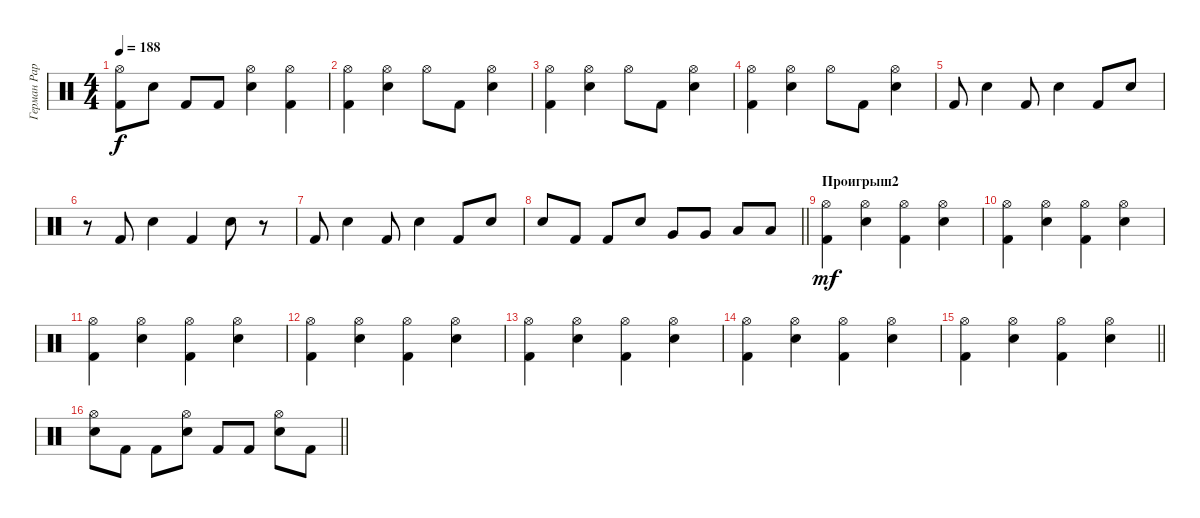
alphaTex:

\track ("Герман Раребелл, ударные" "Герман Рар") {instrument percussion}
\staff {score}
\articulation defaults
\ts (4 4)
\tempo 188
\clef neutral
\ks c
("Kick (hit) 2" "Hi-Hat (open)").8{dy f} "Snare (hit) 2".8 "Kick (hit) 2".8 "Kick (hit) 2".8 ("Snare (hit) 2" "Hi-Hat (open)").4 ("Kick (hit) 2" "Hi-Hat (open)").4 |
("Kick (hit) 2" "Hi-Hat (open)").4 ("Snare (hit) 2" "Hi-Hat (open)").4 "Hi-Hat (open)".8 "Kick (hit) 2".8 ("Snare (hit) 2" "Hi-Hat (open)").4 |
("Kick (hit) 2" "Hi-Hat (open)").4 ("Snare (hit) 2" "Hi-Hat (open)").4 "Hi-Hat (open)".8 "Kick (hit) 2".8 ("Snare (hit) 2" "Hi-Hat (open)").4 |
("Kick (hit) 2" "Hi-Hat (open)").4 ("Snare (hit) 2" "Hi-Hat (open)").4 "Hi-Hat (open)".8 "Kick (hit) 2".8 ("Snare (hit) 2" "Hi-Hat (open)").4 |
"Kick (hit) 2".8 "Snare (hit) 2".4 "Kick (hit) 2".8 "Snare (hit) 2".4 "Kick (hit) 2".8 "Snare (hit) 2".8 |
r.8 "Kick (hit) 2".8 "Snare (hit) 2".4 "Kick (hit) 2".4 "Snare (hit) 2".8 r.8 |
"Kick (hit) 2".8 "Snare (hit) 2".4 "Kick (hit) 2".8 "Snare (hit) 2".4 "Kick (hit) 2".8 "Snare (hit) 2".8 |
\barLineRight lightlight "Snare (hit) 2".8 "Kick (hit) 2".8 "Kick (hit) 2".8 "Snare (hit) 2".8 "Very Low Tom (hit)".8 "Very Low Tom (hit)".8 "Low Floor Tom (hit)".8 "Low Floor Tom (hit)".8
|
\section ("" "Проигрыш2")
("Hi-Hat (open)" "Kick (hit) 2").4{dy mf} ("Hi-Hat (open)" "Snare (hit) 2").4 ("Hi-Hat (open)" "Kick (hit) 2").4 ("Hi-Hat (open)" "Snare (hit) 2").4 |
("Hi-Hat (open)" "Kick (hit) 2").4 ("Hi-Hat (open)" "Snare (hit) 2").4 ("Hi-Hat (open)" "Kick (hit) 2").4 ("Hi-Hat (open)" "Snare (hit) 2").4 |
("Hi-Hat (open)" "Kick (hit) 2").4 ("Hi-Hat (open)" "Snare (hit) 2").4 ("Hi-Hat (open)" "Kick (hit) 2").4 ("Hi-Hat (open)" "Snare (hit) 2").4 |
("Hi-Hat (open)" "Kick (hit) 2").4 ("Hi-Hat (open)" "Snare (hit) 2").4 ("Hi-Hat (open)" "Kick (hit) 2").4 ("Hi-Hat (open)" "Snare (hit) 2").4 |
("Hi-Hat (open)" "Kick (hit) 2").4 ("Hi-Hat (open)" "Snare (hit) 2").4 ("Hi-Hat (open)" "Kick (hit) 2").4 ("Hi-Hat (open)" "Snare (hit) 2").4 |
("Hi-Hat (open)" "Kick (hit) 2").4 ("Hi-Hat (open)" "Snare (hit) 2").4 ("Hi-Hat (open)" "Kick (hit) 2").4 ("Hi-Hat (open)" "Snare (hit) 2").4 |
\barLineRight lightlight
("Hi-Hat (open)" "Kick (hit) 2").4 ("Hi-Hat (open)" "Snare (hit) 2").4 ("Hi-Hat (open)" "Kick (hit) 2").4 ("Hi-Hat (open)" "Snare (hit) 2").4 |
\barLineRight lightlight
("Hi-Hat (open)" "Snare (hit) 2").8 "Kick (hit) 2".8 "Kick (hit) 2".8 ("Hi-Hat (open)" "Snare (hit) 2").8 "Kick (hit) 2".8 "Kick (hit) 2".8 ("Hi-Hat (open)" "Snare (hit) 2").8 "Kick (hit) 2".8
